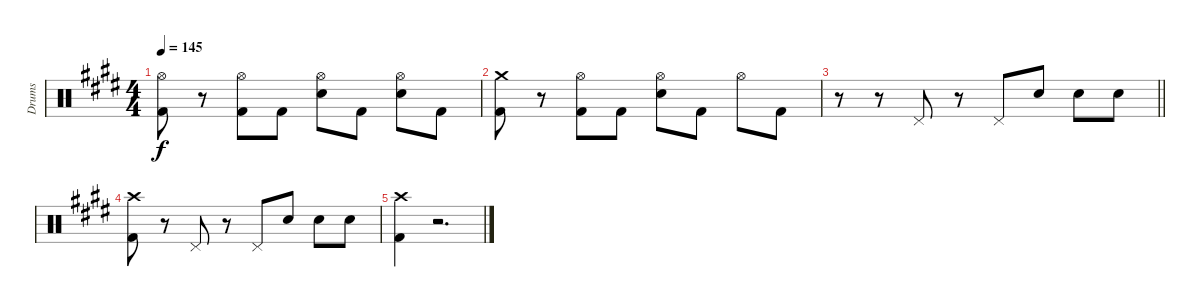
\track ("Drums" "Drums") {instrument percussion}
\staff {score}
\articulation defaults
\ts (4 4)
\tempo 145
\clef neutral
\ks e
("Hi-Hat (open)" "Kick (hit) 2").8{dy f} r.8 ("Hi-Hat (open)" "Kick (hit) 2").8 "Kick (hit) 2".8 ("Hi-Hat (open)" "Electric Snare (hit)").8 "Kick (hit) 2".8 ("Hi-Hat (open)" "Electric Snare (hit)").8 "Kick (hit) 2".8 |
("Crash medium (hit)" "Kick (hit) 2").8 r.8 ("Hi-Hat (open)" "Kick (hit) 2").8 "Kick (hit) 2".8 ("Hi-Hat (open)" "Electric Snare (hit)").8 "Kick (hit) 2".8 "Hi-Hat (open)".8 "Kick (hit) 2".8 |
\barLineRight lightlight
r.8 r.8 "Pedal Hi-Hat (hit)".8 r.8 "Pedal Hi-Hat (hit)".8 "Electric Snare (hit)".8 "Electric Snare (hit)".8 "Electric Snare (hit)".8 |
("Crash high (hit)" "Kick (hit) 2").8 r.8 "Pedal Hi-Hat (hit)".8 r.8 "Pedal Hi-Hat (hit)".8 "Electric Snare (hit)".8 "Electric Snare (hit)".8 "Electric Snare (hit)".8 |
("Crash high (hit)" "Kick (hit) 2").4 r.2{d}
